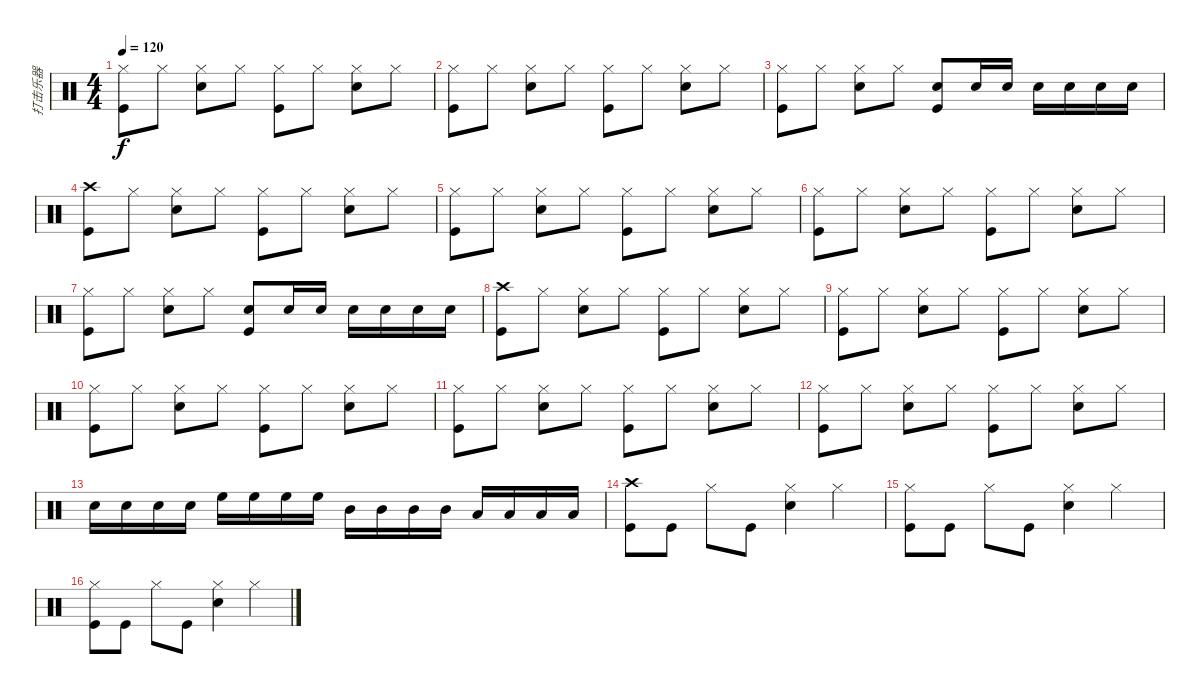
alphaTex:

\track ("打击乐器" "打击乐器") {instrument percussion}
\staff {score}
\articulation defaults
\ts (4 4)
\tempo 120
\clef neutral
\ks c
("Hi-Hat (closed)" "Kick (hit)").8{dy f} "Hi-Hat (closed)".8 ("Hi-Hat (closed)" "Electric Snare (hit)").8 "Hi-Hat (closed)".8 ("Hi-Hat (closed)" "Kick (hit)").8 "Hi-Hat (closed)".8 ("Hi-Hat (closed)" "Electric Snare (hit)").8 "Hi-Hat (closed)".8 |
("Hi-Hat (closed)" "Kick (hit)").8 "Hi-Hat (closed)".8 ("Hi-Hat (closed)" "Electric Snare (hit)").8 "Hi-Hat (closed)".8 ("Hi-Hat (closed)" "Kick (hit)").8 "Hi-Hat (closed)".8 ("Hi-Hat (closed)" "Electric Snare (hit)").8 "Hi-Hat (closed)".8 |
("Hi-Hat (closed)" "Kick (hit)").8 "Hi-Hat (closed)".8 ("Hi-Hat (closed)" "Electric Snare (hit)").8 "Hi-Hat (closed)".8 ("Electric Snare (hit)" "Kick (hit)").8 "Electric Snare (hit)".16 "Electric Snare (hit)".16 "Electric Snare (hit)".16 "Electric Snare (hit)".16 "Electric Snare (hit)".16 "Electric Snare (hit)".16 |
("Crash high (hit)" "Kick (hit)").8 "Hi-Hat (closed)".8 ("Hi-Hat (closed)" "Electric Snare (hit)").8 "Hi-Hat (closed)".8 ("Hi-Hat (closed)" "Kick (hit)").8 "Hi-Hat (closed)".8 ("Hi-Hat (closed)" "Electric Snare (hit)").8 "Hi-Hat (closed)".8 |
("Hi-Hat (closed)" "Kick (hit)").8 "Hi-Hat (closed)".8 ("Hi-Hat (closed)" "Electric Snare (hit)").8 "Hi-Hat (closed)".8 ("Hi-Hat (closed)" "Kick (hit)").8 "Hi-Hat (closed)".8 ("Hi-Hat (closed)" "Electric Snare (hit)").8 "Hi-Hat (closed)".8 |
("Hi-Hat (closed)" "Kick (hit)").8 "Hi-Hat (closed)".8 ("Hi-Hat (closed)" "Electric Snare (hit)").8 "Hi-Hat (closed)".8 ("Hi-Hat (closed)" "Kick (hit)").8 "Hi-Hat (closed)".8 ("Hi-Hat (closed)" "Electric Snare (hit)").8 "Hi-Hat (closed)".8 |
("Hi-Hat (closed)" "Kick (hit)").8 "Hi-Hat (closed)".8 ("Hi-Hat (closed)" "Electric Snare (hit)").8 "Hi-Hat (closed)".8 ("Electric Snare (hit)" "Kick (hit)").8 "Electric Snare (hit)".16 "Electric Snare (hit)".16 "Electric Snare (hit)".16 "Electric Snare (hit)".16 "Electric Snare (hit)".16 "Electric Snare (hit)".16 |
("Crash high (hit)" "Kick (hit)").8 "Hi-Hat (closed)".8 ("Hi-Hat (closed)" "Electric Snare (hit)").8 "Hi-Hat (closed)".8 ("Hi-Hat (closed)" "Kick (hit)").8 "Hi-Hat (closed)".8 ("Hi-Hat (closed)" "Electric Snare (hit)").8 "Hi-Hat (closed)".8 |
("Hi-Hat (closed)" "Kick (hit)").8 "Hi-Hat (closed)".8 ("Hi-Hat (closed)" "Electric Snare (hit)").8 "Hi-Hat (closed)".8 ("Hi-Hat (closed)" "Kick (hit)").8 "Hi-Hat (closed)".8 ("Hi-Hat (closed)" "Electric Snare (hit)").8 "Hi-Hat (closed)".8 |
("Hi-Hat (closed)" "Kick (hit)").8 "Hi-Hat (closed)".8 ("Hi-Hat (closed)" "Electric Snare (hit)").8 "Hi-Hat (closed)".8 ("Hi-Hat (closed)" "Kick (hit)").8 "Hi-Hat (closed)".8 ("Hi-Hat (closed)" "Electric Snare (hit)").8 "Hi-Hat (closed)".8 |
("Hi-Hat (closed)" "Kick (hit)").8 "Hi-Hat (closed)".8 ("Hi-Hat (closed)" "Electric Snare (hit)").8 "Hi-Hat (closed)".8 ("Hi-Hat (closed)" "Kick (hit)").8 "Hi-Hat (closed)".8 ("Hi-Hat (closed)" "Electric Snare (hit)").8 "Hi-Hat (closed)".8 |
("Hi-Hat (closed)" "Kick (hit)").8 "Hi-Hat (closed)".8 ("Hi-Hat (closed)" "Electric Snare (hit)").8 "Hi-Hat (closed)".8 ("Hi-Hat (closed)" "Kick (hit)").8 "Hi-Hat (closed)".8 ("Hi-Hat (closed)" "Electric Snare (hit)").8 "Hi-Hat (closed)".8 |
"Electric Snare (hit)".16 "Electric Snare (hit)".16 "Electric Snare (hit)".16 "Electric Snare (hit)".16 "High Floor Tom (hit)".16 "High Floor Tom (hit)".16 "High Floor Tom (hit)".16 "High Floor Tom (hit)".16 "Mid Tom (hit)".16 "Mid Tom (hit)".16 "Mid Tom (hit)".16 "Mid Tom (hit)".16 "Low Floor Tom (hit)".16 "Low Floor Tom (hit)".16 "Low Floor Tom (hit)".16 "Low Floor Tom (hit)".16 |
("Crash high (hit)" "Kick (hit)").8 "Kick (hit)".8 "Hi-Hat (closed)".8 "Kick (hit)".8 ("Hi-Hat (closed)" "Electric Snare (hit)").4 "Hi-Hat (closed)".4 |
("Hi-Hat (closed)" "Kick (hit)").8 "Kick (hit)".8 "Hi-Hat (closed)".8 "Kick (hit)".8 ("Hi-Hat (closed)" "Electric Snare (hit)").4 "Hi-Hat (closed)".4 |
("Hi-Hat (closed)" "Kick (hit)").8 "Kick (hit)".8 "Hi-Hat (closed)".8 "Kick (hit)".8 ("Hi-Hat (closed)" "Electric Snare (hit)").4 "Hi-Hat (closed)".4
